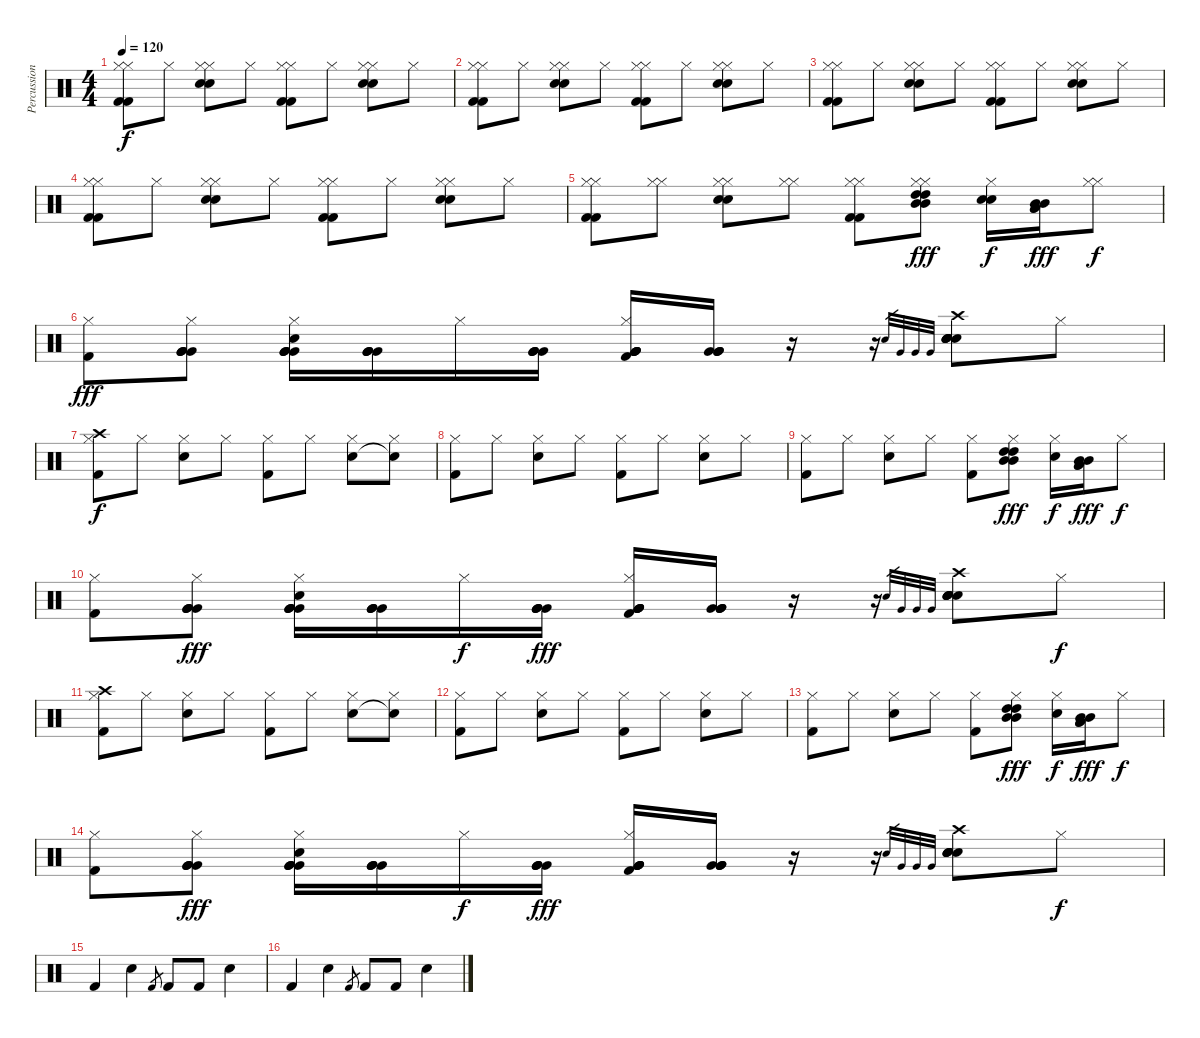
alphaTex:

\track ("Percussion" "Percussion") {instrument percussion}
\staff {score}
\articulation defaults
\ts (4 4)
\tempo 120
\clef neutral
\ks c
("Kick (hit) 2" "Kick (hit) 2" "Hi-Hat (closed)" "Hi-Hat (closed)").8{dy f} "Hi-Hat (closed)".8 ("Electric Snare (hit)" "Electric Snare (hit)" "Hi-Hat (closed)" "Hi-Hat (closed)").8 "Hi-Hat (closed)".8 ("Kick (hit) 2" "Kick (hit) 2" "Hi-Hat (closed)" "Hi-Hat (closed)").8 "Hi-Hat (closed)".8 ("Electric Snare (hit)" "Electric Snare (hit)" "Hi-Hat (closed)" "Hi-Hat (closed)").8 "Hi-Hat (closed)".8 |
("Kick (hit) 2" "Kick (hit) 2" "Hi-Hat (closed)" "Hi-Hat (closed)").8 "Hi-Hat (closed)".8 ("Electric Snare (hit)" "Electric Snare (hit)" "Hi-Hat (closed)" "Hi-Hat (closed)").8 "Hi-Hat (closed)".8 ("Kick (hit) 2" "Kick (hit) 2" "Hi-Hat (closed)" "Hi-Hat (closed)").8 "Hi-Hat (closed)".8 ("Electric Snare (hit)" "Electric Snare (hit)" "Hi-Hat (closed)" "Hi-Hat (closed)").8 "Hi-Hat (closed)".8 |
("Kick (hit) 2" "Kick (hit) 2" "Hi-Hat (closed)" "Hi-Hat (closed)").8 "Hi-Hat (closed)".8 ("Electric Snare (hit)" "Electric Snare (hit)" "Hi-Hat (closed)" "Hi-Hat (closed)").8 "Hi-Hat (closed)".8 ("Kick (hit) 2" "Kick (hit) 2" "Hi-Hat (closed)" "Hi-Hat (closed)").8 "Hi-Hat (closed)".8 ("Electric Snare (hit)" "Electric Snare (hit)" "Hi-Hat (closed)" "Hi-Hat (closed)").8 "Hi-Hat (closed)".8 |
("Kick (hit) 2" "Kick (hit) 2" "Hi-Hat (closed)" "Hi-Hat (closed)").8 "Hi-Hat (closed)".8 ("Electric Snare (hit)" "Electric Snare (hit)" "Hi-Hat (closed)" "Hi-Hat (closed)").8 "Hi-Hat (closed)".8 ("Kick (hit) 2" "Kick (hit) 2" "Hi-Hat (closed)" "Hi-Hat (closed)").8 "Hi-Hat (closed)".8 ("Electric Snare (hit)" "Electric Snare (hit)" "Hi-Hat (closed)" "Hi-Hat (closed)").8 "Hi-Hat (closed)".8 |
("Hi-Hat (closed)" "Kick (hit) 2" "Kick (hit) 2" "Hi-Hat (closed)").8 ("Hi-Hat (closed)" "Hi-Hat (closed)").8 ("Hi-Hat (closed)" "Electric Snare (hit)" "Electric Snare (hit)" "Hi-Hat (closed)").8 ("Hi-Hat (closed)" "Hi-Hat (closed)").8 ("Hi-Hat (closed)" "Kick (hit) 2" "Kick (hit) 2" "Hi-Hat (closed)").8 ("Hi-Hat (closed)" "Hi-Hat (closed)" "High Tom (hit)" "High Tom (hit)" "Mid Tom (hit)" "Mid Tom (hit)").8{dy fff} ("Hi-Hat (closed)" "Electric Snare (hit)" "Electric Snare (hit)").16{dy f} ("Mid Tom (hit)" "Mid Tom (hit)" "Low Tom (hit)" "Low Tom (hit)").16{dy fff} ("Hi-Hat (closed)" "Hi-Hat (closed)").8{dy f} |
("Hi-Hat (closed)" "Kick (hit) 2").8{dy fff} ("Hi-Hat (closed)" "Very Low Tom (hit)" "Very Low Tom (hit)" "Very Low Tom (hit)" "Very Low Tom (hit)").8 ("Hi-Hat (closed)" "Electric Snare (hit)" "Very Low Tom (hit)" "Very Low Tom (hit)" "Very Low Tom (hit)" "Very Low Tom (hit)").16 ("Very Low Tom (hit)" "Very Low Tom (hit)" "Very Low Tom (hit)" "Very Low Tom (hit)").16 "Hi-Hat (closed)".16 ("Very Low Tom (hit)" "Very Low Tom (hit)" "Very Low Tom (hit)" "Very Low Tom (hit)").16 ("Hi-Hat (closed)" "Kick (hit) 2" "Very Low Tom (hit)" "Very Low Tom (hit)" "Very Low Tom (hit)" "Very Low Tom (hit)").16 ("Very Low Tom (hit)" "Very Low Tom (hit)" "Very Low Tom (hit)" "Very Low Tom (hit)").16 r.16 r.16 "Snare (hit)".32{gr} "Very Low Tom (hit)".32{gr} "Very Low Tom (hit)".32{gr} "Very Low Tom (hit)".32{gr} ("Crash high (hit)" "Electric Snare (hit)" "Electric Snare (hit)" "Electric Snare (hit)" "Electric Snare (hit)" "Electric Snare (hit)").8 "Hi-Hat (closed)".8 |
("Hi-Hat (closed)" "Kick (hit) 2" "Crash high (hit)").8{dy f} "Hi-Hat (closed)".8 ("Hi-Hat (closed)" "Electric Snare (hit)").8 "Hi-Hat (closed)".8 ("Hi-Hat (closed)" "Kick (hit) 2").8 "Hi-Hat (closed)".8 ("Hi-Hat (closed)" "Electric Snare (hit)").8 ("Hi-Hat (closed)" "Snare (hit)"{t}).8 |
("Hi-Hat (closed)" "Kick (hit) 2").8 "Hi-Hat (closed)".8 ("Hi-Hat (closed)" "Electric Snare (hit)").8 "Hi-Hat (closed)".8 ("Hi-Hat (closed)" "Kick (hit) 2").8 "Hi-Hat (closed)".8 ("Hi-Hat (closed)" "Electric Snare (hit)").8 "Hi-Hat (closed)".8 |
("Hi-Hat (closed)" "Kick (hit) 2").8 "Hi-Hat (closed)".8 ("Hi-Hat (closed)" "Electric Snare (hit)").8 "Hi-Hat (closed)".8 ("Hi-Hat (closed)" "Kick (hit) 2").8 ("Hi-Hat (closed)" "High Tom (hit)" "High Tom (hit)" "Mid Tom (hit)" "Mid Tom (hit)").8{dy fff} ("Hi-Hat (closed)" "Electric Snare (hit)").16{dy f} ("Mid Tom (hit)" "Mid Tom (hit)" "Low Tom (hit)" "Low Tom (hit)").16{dy fff} "Hi-Hat (closed)".8{dy f} |
("Hi-Hat (closed)" "Kick (hit) 2").8 ("Hi-Hat (closed)" "Very Low Tom (hit)" "Very Low Tom (hit)" "Very Low Tom (hit)" "Very Low Tom (hit)").8{dy fff} ("Hi-Hat (closed)" "Electric Snare (hit)" "Very Low Tom (hit)" "Very Low Tom (hit)" "Very Low Tom (hit)" "Very Low Tom (hit)").16 ("Very Low Tom (hit)" "Very Low Tom (hit)" "Very Low Tom (hit)" "Very Low Tom (hit)").16 "Hi-Hat (closed)".16{dy f} ("Very Low Tom (hit)" "Very Low Tom (hit)" "Very Low Tom (hit)" "Very Low Tom (hit)").16{dy fff} ("Hi-Hat (closed)" "Kick (hit) 2" "Very Low Tom (hit)" "Very Low Tom (hit)" "Very Low Tom (hit)" "Very Low Tom (hit)").16 ("Very Low Tom (hit)" "Very Low Tom (hit)" "Very Low Tom (hit)" "Very Low Tom (hit)").16 r.16 r.16 "Snare (hit)".32{gr} "Very Low Tom (hit)".32{gr} "Very Low Tom (hit)".32{gr} "Very Low Tom (hit)".32{gr} ("Crash high (hit)" "Electric Snare (hit)" "Electric Snare (hit)" "Electric Snare (hit)" "Electric Snare (hit)" "Electric Snare (hit)").8 "Hi-Hat (closed)".8{dy f} |
("Hi-Hat (closed)" "Kick (hit) 2" "Crash high (hit)").8 "Hi-Hat (closed)".8 ("Hi-Hat (closed)" "Electric Snare (hit)").8 "Hi-Hat (closed)".8 ("Hi-Hat (closed)" "Kick (hit) 2").8 "Hi-Hat (closed)".8 ("Hi-Hat (closed)" "Electric Snare (hit)").8 ("Hi-Hat (closed)" "Snare (hit)"{t}).8 |
("Hi-Hat (closed)" "Kick (hit) 2").8 "Hi-Hat (closed)".8 ("Hi-Hat (closed)" "Electric Snare (hit)").8 "Hi-Hat (closed)".8 ("Hi-Hat (closed)" "Kick (hit) 2").8 "Hi-Hat (closed)".8 ("Hi-Hat (closed)" "Electric Snare (hit)").8 "Hi-Hat (closed)".8 |
("Hi-Hat (closed)" "Kick (hit) 2").8 "Hi-Hat (closed)".8 ("Hi-Hat (closed)" "Electric Snare (hit)").8 "Hi-Hat (closed)".8 ("Hi-Hat (closed)" "Kick (hit) 2").8 ("Hi-Hat (closed)" "High Tom (hit)" "High Tom (hit)" "Mid Tom (hit)" "Mid Tom (hit)").8{dy fff} ("Hi-Hat (closed)" "Electric Snare (hit)").16{dy f} ("Mid Tom (hit)" "Mid Tom (hit)" "Low Tom (hit)" "Low Tom (hit)").16{dy fff} "Hi-Hat (closed)".8{dy f} |
("Hi-Hat (closed)" "Kick (hit) 2").8 ("Hi-Hat (closed)" "Very Low Tom (hit)" "Very Low Tom (hit)" "Very Low Tom (hit)" "Very Low Tom (hit)").8{dy fff} ("Hi-Hat (closed)" "Electric Snare (hit)" "Very Low Tom (hit)" "Very Low Tom (hit)" "Very Low Tom (hit)" "Very Low Tom (hit)").16 ("Very Low Tom (hit)" "Very Low Tom (hit)" "Very Low Tom (hit)" "Very Low Tom (hit)").16 "Hi-Hat (closed)".16{dy f} ("Very Low Tom (hit)" "Very Low Tom (hit)" "Very Low Tom (hit)" "Very Low Tom (hit)").16{dy fff} ("Hi-Hat (closed)" "Kick (hit) 2" "Very Low Tom (hit)" "Very Low Tom (hit)" "Very Low Tom (hit)" "Very Low Tom (hit)").16 ("Very Low Tom (hit)" "Very Low Tom (hit)" "Very Low Tom (hit)" "Very Low Tom (hit)").16 r.16 r.16 "Snare (hit)".32{gr} "Very Low Tom (hit)".32{gr} "Very Low Tom (hit)".32{gr} "Very Low Tom (hit)".32{gr} ("Crash high (hit)" "Electric Snare (hit)" "Electric Snare (hit)" "Electric Snare (hit)" "Electric Snare (hit)" "Electric Snare (hit)").8 "Hi-Hat (closed)".8{dy f} |
"Kick (hit) 2".4 "Hand Clap (hit)".4 "Kick (hit) 2".8{gr} "Kick (hit) 2".8 "Kick (hit) 2".8 "Hand Clap (hit)".4 |
"Kick (hit) 2".4 "Hand Clap (hit)".4 "Kick (hit) 2".8{gr} "Kick (hit) 2".8 "Kick (hit) 2".8 "Hand Clap (hit)".4
